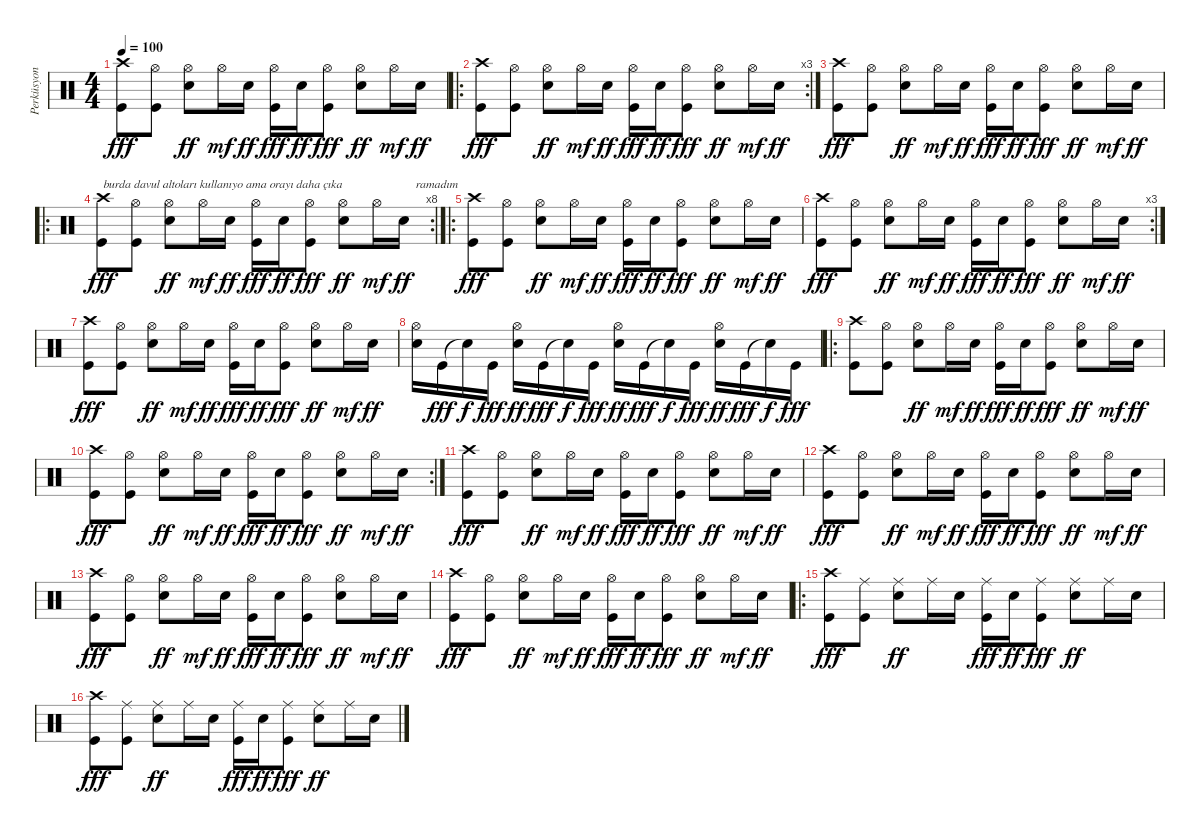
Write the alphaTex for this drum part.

\track ("Perküsyon" "Perküsyon") {instrument percussion}
\staff {score}
\articulation defaults
\ts (4 4)
\tempo 100
\clef neutral
\ks c
("Crash high (hit)" "Kick (hit)").8{dy fff} ("Hi-Hat (open)" "Kick (hit)").8 ("Hi-Hat (open)" "Snare (hit) 2").8{dy ff} "Hi-Hat (open)".16{dy mf} "Snare (hit) 2".16{dy ff} ("Hi-Hat (open)" "Kick (hit)").16{dy fff} "Snare (hit) 2".16{dy ff} ("Hi-Hat (open)" "Kick (hit)").8{dy fff} ("Hi-Hat (open)" "Snare (hit) 2").8{dy ff} "Hi-Hat (open)".16{dy mf} "Snare (hit) 2".16{dy ff} |
\ro
\rc 3
("Crash high (hit)" "Kick (hit)").8{dy fff} ("Hi-Hat (open)" "Kick (hit)").8 ("Hi-Hat (open)" "Snare (hit) 2").8{dy ff} "Hi-Hat (open)".16{dy mf} "Snare (hit) 2".16{dy ff} ("Hi-Hat (open)" "Kick (hit)").16{dy fff} "Snare (hit) 2".16{dy ff} ("Hi-Hat (open)" "Kick (hit)").8{dy fff} ("Hi-Hat (open)" "Snare (hit) 2").8{dy ff} "Hi-Hat (open)".16{dy mf} "Snare (hit) 2".16{dy ff} |
("Crash high (hit)" "Kick (hit)").8{dy fff} ("Hi-Hat (open)" "Kick (hit)").8 ("Hi-Hat (open)" "Snare (hit) 2").8{dy ff} "Hi-Hat (open)".16{dy mf} "Snare (hit) 2".16{dy ff} ("Hi-Hat (open)" "Kick (hit)").16{dy fff} "Snare (hit) 2".16{dy ff} ("Hi-Hat (open)" "Kick (hit)").8{dy fff} ("Hi-Hat (open)" "Snare (hit) 2").8{dy ff} "Hi-Hat (open)".16{dy mf} "Snare (hit) 2".16{dy ff} |
\ro
\rc 8
("Crash high (hit)" "Kick (hit)").8{txt "burda davul altoları kullanıyo ama orayı daha çıka" dy fff} ("Hi-Hat (open)" "Kick (hit)").8 ("Hi-Hat (open)" "Snare (hit) 2").8{dy ff} "Hi-Hat (open)".16{dy mf} "Snare (hit) 2".16{dy ff} ("Hi-Hat (open)" "Kick (hit)").16{dy fff} "Snare (hit) 2".16{dy ff} ("Hi-Hat (open)" "Kick (hit)").8{dy fff} ("Hi-Hat (open)" "Snare (hit) 2").8{dy ff} "Hi-Hat (open)".16{dy mf} "Snare (hit) 2".16{txt "    ramadım" dy ff} |
\ro
("Crash high (hit)" "Kick (hit)").8{dy fff} ("Hi-Hat (open)" "Kick (hit)").8 ("Hi-Hat (open)" "Snare (hit) 2").8{dy ff} "Hi-Hat (open)".16{dy mf} "Snare (hit) 2".16{dy ff} ("Hi-Hat (open)" "Kick (hit)").16{dy fff} "Snare (hit) 2".16{dy ff} ("Hi-Hat (open)" "Kick (hit)").8{dy fff} ("Hi-Hat (open)" "Snare (hit) 2").8{dy ff} "Hi-Hat (open)".16{dy mf} "Snare (hit) 2".16{dy ff} |
\rc 3
("Crash high (hit)" "Kick (hit)").8{dy fff} ("Hi-Hat (open)" "Kick (hit)").8 ("Hi-Hat (open)" "Snare (hit) 2").8{dy ff} "Hi-Hat (open)".16{dy mf} "Snare (hit) 2".16{dy ff} ("Hi-Hat (open)" "Kick (hit)").16{dy fff} "Snare (hit) 2".16{dy ff} ("Hi-Hat (open)" "Kick (hit)").8{dy fff} ("Hi-Hat (open)" "Snare (hit) 2").8{dy ff} "Hi-Hat (open)".16{dy mf} "Snare (hit) 2".16{dy ff} |
("Crash high (hit)" "Kick (hit)").8{dy fff} ("Hi-Hat (open)" "Kick (hit)").8 ("Hi-Hat (open)" "Snare (hit) 2").8{dy ff} "Hi-Hat (open)".16{dy mf} "Snare (hit) 2".16{dy ff} ("Hi-Hat (open)" "Kick (hit)").16{dy fff} "Snare (hit) 2".16{dy ff} ("Hi-Hat (open)" "Kick (hit)").8{dy fff} ("Hi-Hat (open)" "Snare (hit) 2").8{dy ff} "Hi-Hat (open)".16{dy mf} "Snare (hit) 2".16{dy ff} |
("Hi-Hat (open)" "Snare (hit) 2").16 "Kick (hit)".16{dy fff} "Snare (hit)"{t}.16{dy f} "Kick (hit)".16{dy fff} ("Hi-Hat (open)" "Snare (hit) 2").16{dy ff} "Kick (hit)".16{dy fff} "Snare (hit)"{t}.16{dy f} "Kick (hit)".16{dy fff} ("Hi-Hat (open)" "Snare (hit) 2").16{dy ff} "Kick (hit)".16{dy fff} "Snare (hit)"{t}.16{dy f} "Kick (hit)".16{dy fff} ("Hi-Hat (open)" "Snare (hit) 2").16{dy ff} "Kick (hit)".16{dy fff} "Snare (hit)"{t}.16{dy f} "Kick (hit)".16{dy fff} |
\ro
("Crash high (hit)" "Kick (hit)").8 ("Hi-Hat (open)" "Kick (hit)").8 ("Hi-Hat (open)" "Snare (hit) 2").8{dy ff} "Hi-Hat (open)".16{dy mf} "Snare (hit) 2".16{dy ff} ("Hi-Hat (open)" "Kick (hit)").16{dy fff} "Snare (hit) 2".16{dy ff} ("Hi-Hat (open)" "Kick (hit)").8{dy fff} ("Hi-Hat (open)" "Snare (hit) 2").8{dy ff} "Hi-Hat (open)".16{dy mf} "Snare (hit) 2".16{dy ff} |
\rc 2
("Crash high (hit)" "Kick (hit)").8{dy fff} ("Hi-Hat (open)" "Kick (hit)").8 ("Hi-Hat (open)" "Snare (hit) 2").8{dy ff} "Hi-Hat (open)".16{dy mf} "Snare (hit) 2".16{dy ff} ("Hi-Hat (open)" "Kick (hit)").16{dy fff} "Snare (hit) 2".16{dy ff} ("Hi-Hat (open)" "Kick (hit)").8{dy fff} ("Hi-Hat (open)" "Snare (hit) 2").8{dy ff} "Hi-Hat (open)".16{dy mf} "Snare (hit) 2".16{dy ff} |
("Crash high (hit)" "Kick (hit)").8{dy fff} ("Hi-Hat (open)" "Kick (hit)").8 ("Hi-Hat (open)" "Snare (hit) 2").8{dy ff} "Hi-Hat (open)".16{dy mf} "Snare (hit) 2".16{dy ff} ("Hi-Hat (open)" "Kick (hit)").16{dy fff} "Snare (hit) 2".16{dy ff} ("Hi-Hat (open)" "Kick (hit)").8{dy fff} ("Hi-Hat (open)" "Snare (hit) 2").8{dy ff} "Hi-Hat (open)".16{dy mf} "Snare (hit) 2".16{dy ff} |
("Crash high (hit)" "Kick (hit)").8{dy fff} ("Hi-Hat (open)" "Kick (hit)").8 ("Hi-Hat (open)" "Snare (hit) 2").8{dy ff} "Hi-Hat (open)".16{dy mf} "Snare (hit) 2".16{dy ff} ("Hi-Hat (open)" "Kick (hit)").16{dy fff} "Snare (hit) 2".16{dy ff} ("Hi-Hat (open)" "Kick (hit)").8{dy fff} ("Hi-Hat (open)" "Snare (hit) 2").8{dy ff} "Hi-Hat (open)".16{dy mf} "Snare (hit) 2".16{dy ff} |
("Crash high (hit)" "Kick (hit)").8{dy fff} ("Hi-Hat (open)" "Kick (hit)").8 ("Hi-Hat (open)" "Snare (hit) 2").8{dy ff} "Hi-Hat (open)".16{dy mf} "Snare (hit) 2".16{dy ff} ("Hi-Hat (open)" "Kick (hit)").16{dy fff} "Snare (hit) 2".16{dy ff} ("Hi-Hat (open)" "Kick (hit)").8{dy fff} ("Hi-Hat (open)" "Snare (hit) 2").8{dy ff} "Hi-Hat (open)".16{dy mf} "Snare (hit) 2".16{dy ff} |
("Crash high (hit)" "Kick (hit)").8{dy fff} ("Hi-Hat (open)" "Kick (hit)").8 ("Hi-Hat (open)" "Snare (hit) 2").8{dy ff} "Hi-Hat (open)".16{dy mf} "Snare (hit) 2".16{dy ff} ("Hi-Hat (open)" "Kick (hit)").16{dy fff} "Snare (hit) 2".16{dy ff} ("Hi-Hat (open)" "Kick (hit)").8{dy fff} ("Hi-Hat (open)" "Snare (hit) 2").8{dy ff} "Hi-Hat (open)".16{dy mf} "Snare (hit) 2".16{dy ff} |
\ro
("Crash high (hit)" "Kick (hit)").8{dy fff} ("Ride (middle)" "Kick (hit)").8 ("Ride (middle)" "Snare (hit) 2").8{dy ff} "Ride (middle)".16 "Snare (hit) 2".16 ("Ride (middle)" "Kick (hit)").16{dy fff} "Snare (hit) 2".16{dy ff} ("Ride (middle)" "Kick (hit)").8{dy fff} ("Ride (middle)" "Snare (hit) 2").8{dy ff} "Ride (middle)".16 "Snare (hit) 2".16 |
("Crash high (hit)" "Kick (hit)").8{dy fff} ("Ride (middle)" "Kick (hit)").8 ("Ride (middle)" "Snare (hit) 2").8{dy ff} "Ride (middle)".16 "Snare (hit) 2".16 ("Ride (middle)" "Kick (hit)").16{dy fff} "Snare (hit) 2".16{dy ff} ("Ride (middle)" "Kick (hit)").8{dy fff} ("Ride (middle)" "Snare (hit) 2").8{dy ff} "Ride (middle)".16 "Snare (hit) 2".16
